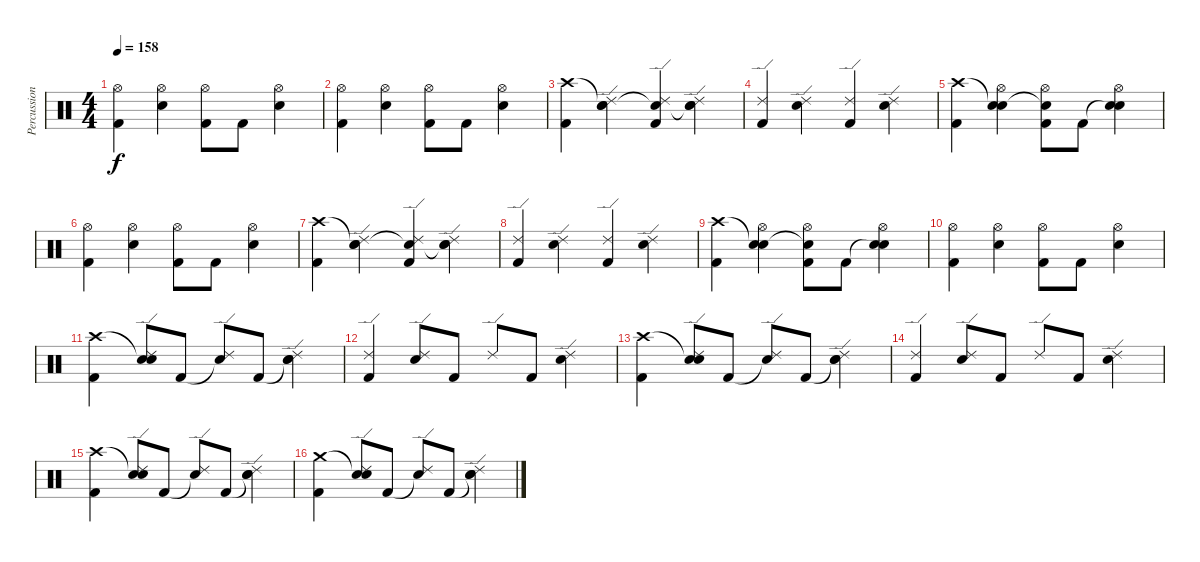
\track ("Percussion" "Percussion") {instrument percussion}
\staff {score}
\articulation defaults
\ts (4 4)
\tempo 158
\clef neutral
\ks c
("Hi-Hat (open)" "Kick (hit) 2").4{dy f} ("Hi-Hat (open)" "Snare (hit) 2").4 ("Hi-Hat (open)" "Kick (hit) 2").8 "Kick (hit) 2".8 ("Hi-Hat (open)" "Snare (hit) 2").4 |
("Hi-Hat (open)" "Kick (hit) 2").4 ("Hi-Hat (open)" "Snare (hit) 2").4 ("Hi-Hat (open)" "Kick (hit) 2").8 "Kick (hit) 2".8 ("Hi-Hat (open)" "Snare (hit) 2").4 |
("Crash high (hit)" "Kick (hit) 2").4 ("Snare (hit)"{t} "Ride (edge) 2" "Snare (hit) 2").4 ("Snare (hit)"{t} "Ride (edge) 2" "Kick (hit) 2").4 ("Snare (hit)"{t} "Ride (edge) 2" "Snare (hit) 2").4 |
("Ride (edge) 2" "Kick (hit) 2").4 ("Ride (edge) 2" "Snare (hit) 2").4 ("Ride (edge) 2" "Kick (hit) 2").4 ("Ride (edge) 2" "Snare (hit) 2").4 |
("Crash high (hit)" "Kick (hit) 2").4 ("Snare (hit)"{t} "Hi-Hat (open)" "Snare (hit) 2").4 ("Snare (hit)"{t} "Hi-Hat (open)" "Kick (hit) 2").8 "Kick (hit) 2".8 ("Snare (hit)"{t} "Hi-Hat (open)" "Snare (hit) 2").4 |
("Hi-Hat (open)" "Kick (hit) 2").4 ("Hi-Hat (open)" "Snare (hit) 2").4 ("Hi-Hat (open)" "Kick (hit) 2").8 "Kick (hit) 2".8 ("Hi-Hat (open)" "Snare (hit) 2").4 |
("Crash high (hit)" "Kick (hit) 2").4 ("Snare (hit)"{t} "Ride (edge) 2" "Snare (hit) 2").4 ("Snare (hit)"{t} "Ride (edge) 2" "Kick (hit) 2").4 ("Snare (hit)"{t} "Ride (edge) 2" "Snare (hit) 2").4 |
("Ride (edge) 2" "Kick (hit) 2").4 ("Ride (edge) 2" "Snare (hit) 2").4 ("Ride (edge) 2" "Kick (hit) 2").4 ("Ride (edge) 2" "Snare (hit) 2").4 |
("Crash high (hit)" "Kick (hit) 2").4 ("Snare (hit)"{t} "Hi-Hat (open)" "Snare (hit) 2").4 ("Snare (hit)"{t} "Hi-Hat (open)" "Kick (hit) 2").8 "Kick (hit) 2".8 ("Snare (hit)"{t} "Hi-Hat (open)" "Snare (hit) 2").4 |
("Hi-Hat (open)" "Kick (hit) 2").4 ("Hi-Hat (open)" "Snare (hit) 2").4 ("Hi-Hat (open)" "Kick (hit) 2").8 "Kick (hit) 2".8 ("Hi-Hat (open)" "Snare (hit) 2").4 |
("Crash high (hit)" "Kick (hit) 2").4 ("Snare (hit)"{t} "Ride (edge) 2" "Snare (hit) 2").8 "Kick (hit) 2".8 ("Snare (hit)"{t} "Ride (edge) 2").8 "Kick (hit) 2".8 ("Snare (hit)"{t} "Ride (edge) 2" "Snare (hit) 2").4 |
("Ride (edge) 2" "Kick (hit) 2").4 ("Ride (edge) 2" "Snare (hit) 2").8 "Kick (hit) 2".8 "Ride (edge) 2".8 "Kick (hit) 2".8 ("Ride (edge) 2" "Snare (hit) 2").4 |
("Crash high (hit)" "Kick (hit) 2").4 ("Snare (hit)"{t} "Ride (edge) 2" "Snare (hit) 2").8 "Kick (hit) 2".8 ("Snare (hit)"{t} "Ride (edge) 2").8 "Kick (hit) 2".8 ("Snare (hit)"{t} "Ride (edge) 2" "Snare (hit) 2").4 |
("Ride (edge) 2" "Kick (hit) 2").4 ("Ride (edge) 2" "Snare (hit) 2").8 "Kick (hit) 2".8 "Ride (edge) 2".8 "Kick (hit) 2".8 ("Ride (edge) 2" "Snare (hit) 2").4 |
("Crash high (hit)" "Kick (hit) 2").4 ("Snare (hit)"{t} "Ride (edge) 2" "Snare (hit) 2").8 "Kick (hit) 2".8 ("Snare (hit)"{t} "Ride (edge) 2").8 "Kick (hit) 2".8 ("Snare (hit)"{t} "Ride (edge) 2" "Snare (hit) 2").4 |
("Crash medium (hit)" "Kick (hit) 2").4 ("Snare (hit)"{t} "Ride (edge) 2" "Snare (hit) 2").8 "Kick (hit) 2".8 ("Snare (hit)"{t} "Ride (edge) 2").8 "Kick (hit) 2".8 ("Snare (hit)"{t} "Ride (edge) 2" "Snare (hit) 2").4
